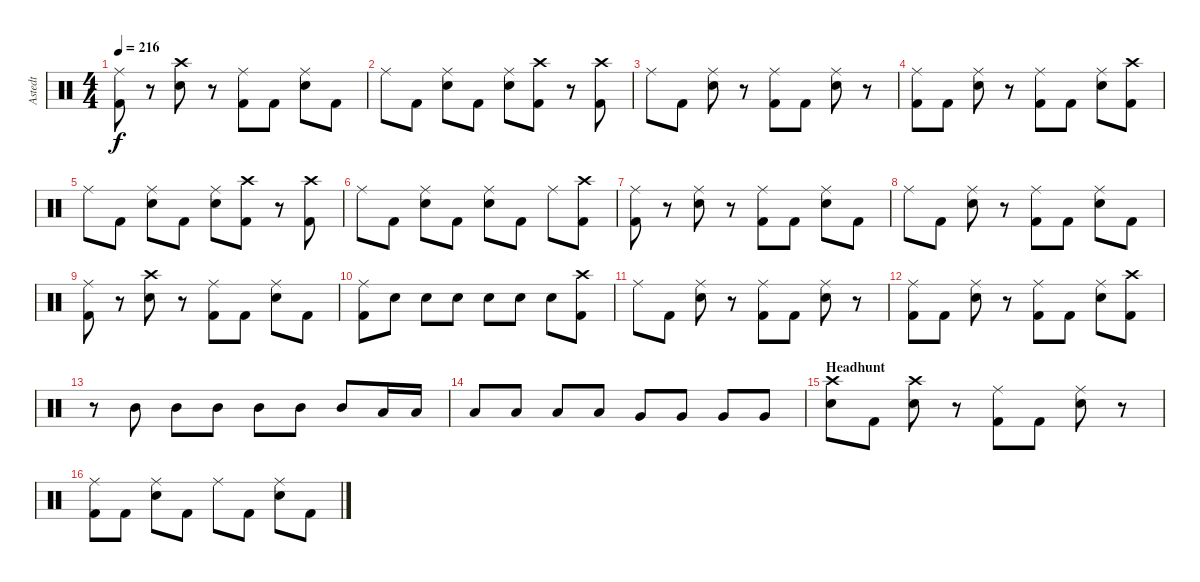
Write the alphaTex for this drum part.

\track ("Astedt" "Astedt") {instrument percussion}
\staff {score}
\articulation defaults
\ts (4 4)
\tempo 216
\clef neutral
\ks c
("Ride (middle)" "Kick (hit) 2").8{dy f} r.8 ("Crash high (hit)" "Snare (hit) 2").8 r.8 ("Ride (middle)" "Kick (hit) 2").8 "Kick (hit) 2".8 ("Ride (middle)" "Snare (hit) 2").8 "Kick (hit) 2".8 |
"Ride (middle)".8 "Kick (hit) 2".8 ("Ride (middle)" "Snare (hit) 2").8 "Kick (hit) 2".8 ("Ride (middle)" "Snare (hit) 2").8 ("Crash high (hit)" "Kick (hit) 2").8 r.8 ("Crash high (hit)" "Kick (hit) 2").8 |
"Ride (middle)".8 "Kick (hit) 2".8 ("Ride (middle)" "Snare (hit) 2").8 r.8 ("Ride (middle)" "Kick (hit) 2").8 "Kick (hit) 2".8 ("Ride (middle)" "Snare (hit) 2").8 r.8 |
("Ride (middle)" "Kick (hit) 2").8 "Kick (hit) 2".8 ("Ride (middle)" "Snare (hit) 2").8 r.8 ("Ride (middle)" "Kick (hit) 2").8 "Kick (hit) 2".8 ("Ride (middle)" "Snare (hit) 2").8 ("Crash high (hit)" "Kick (hit) 2").8 |
"Ride (middle)".8 "Kick (hit) 2".8 ("Ride (middle)" "Snare (hit) 2").8 "Kick (hit) 2".8 ("Ride (middle)" "Snare (hit) 2").8 ("Crash high (hit)" "Kick (hit) 2").8 r.8 ("Crash high (hit)" "Kick (hit) 2").8 |
"Ride (middle)".8 "Kick (hit) 2".8 ("Ride (middle)" "Snare (hit) 2").8 "Kick (hit) 2".8 ("Ride (middle)" "Snare (hit) 2").8 "Kick (hit) 2".8 "Ride (middle)".8 ("Crash high (hit)" "Kick (hit) 2").8 |
("Ride (middle)" "Kick (hit) 2").8 r.8 ("Ride (middle)" "Snare (hit) 2").8 r.8 ("Ride (middle)" "Kick (hit) 2").8 "Kick (hit) 2".8 ("Ride (middle)" "Snare (hit) 2").8 "Kick (hit) 2".8 |
"Ride (middle)".8 "Kick (hit) 2".8 ("Ride (middle)" "Snare (hit) 2").8 r.8 ("Ride (middle)" "Kick (hit) 2").8 "Kick (hit) 2".8 ("Ride (middle)" "Snare (hit) 2").8 "Kick (hit) 2".8 |
("Ride (middle)" "Kick (hit) 2").8 r.8 ("Crash high (hit)" "Snare (hit) 2").8 r.8 ("Ride (middle)" "Kick (hit) 2").8 "Kick (hit) 2".8 ("Ride (middle)" "Snare (hit) 2").8 "Kick (hit) 2".8 |
("Ride (middle)" "Kick (hit) 2").8 "Snare (hit) 2".8 "Snare (hit) 2".8 "Snare (hit) 2".8 "Snare (hit) 2".8 "Snare (hit) 2".8 "Snare (hit) 2".8 ("Crash high (hit)" "Kick (hit) 2").8 |
"Ride (middle)".8 "Kick (hit) 2".8 ("Ride (middle)" "Snare (hit) 2").8 r.8 ("Ride (middle)" "Kick (hit) 2").8 "Kick (hit) 2".8 ("Ride (middle)" "Snare (hit) 2").8 r.8 |
("Ride (middle)" "Kick (hit) 2").8 "Kick (hit) 2".8 ("Ride (middle)" "Snare (hit) 2").8 r.8 ("Ride (middle)" "Kick (hit) 2").8 "Kick (hit) 2".8 ("Ride (middle)" "Snare (hit) 2").8 ("Crash high (hit)" "Kick (hit) 2").8 |
r.8 "Mid Tom (hit)".8 "Mid Tom (hit)".8 "Mid Tom (hit)".8 "Mid Tom (hit)".8 "Mid Tom (hit)".8 "Mid Tom (hit)".8 "Low Tom (hit)".16 "Low Tom (hit)".16 |
"Low Tom (hit)".8 "Low Tom (hit)".8 "Low Tom (hit)".8 "Low Tom (hit)".8 "Very Low Tom (hit)".8 "Very Low Tom (hit)".8 "Very Low Tom (hit)".8 "Very Low Tom (hit)".8 |
\section ("" "Headhunt")
("Crash high (hit)" "Snare (hit) 2").8 "Kick (hit) 2".8 ("Crash high (hit)" "Snare (hit) 2").8 r.8 ("Ride (middle)" "Kick (hit) 2").8 "Kick (hit) 2".8 ("Ride (middle)" "Snare (hit) 2").8 r.8 |
("Ride (middle)" "Kick (hit) 2").8 "Kick (hit) 2".8 ("Ride (middle)" "Snare (hit) 2").8 "Kick (hit) 2".8 "Ride (middle)".8 "Kick (hit) 2".8 ("Ride (middle)" "Snare (hit) 2").8 "Kick (hit) 2".8
